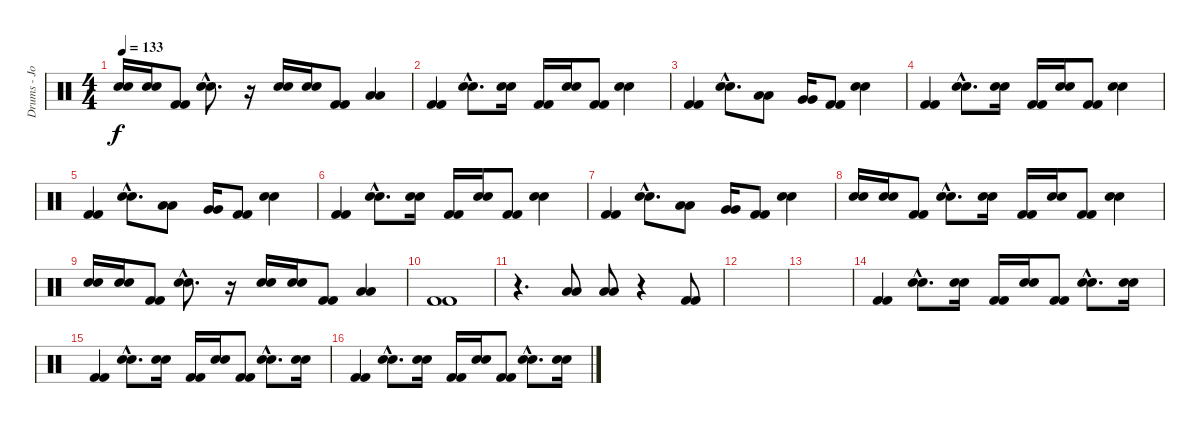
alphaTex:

\track ("Drums - Joe Daniels" "Drums - Jo") {instrument percussion}
\staff {score}
\articulation defaults
\ts (4 4)
\tempo 133
\clef neutral
\ks c
("Snare (hit) 2" "Snare (hit) 2").16{dy f} ("Snare (hit) 2" "Snare (hit) 2").16 ("Kick (hit) 2" "Kick (hit) 2").8 ("Snare (hit) 2"{hac} "Snare (hit) 2"{hac}).8{d} r.16 ("Snare (hit) 2" "Snare (hit) 2").16 ("Snare (hit) 2" "Snare (hit) 2").16 ("Kick (hit) 2" "Kick (hit) 2").8 ("Low Tom (hit)" "Low Tom (hit)").4 |
("Kick (hit) 2" "Kick (hit) 2").4 ("Snare (hit) 2"{hac} "Snare (hit) 2"{hac}).8{d} ("Snare (hit) 2" "Snare (hit) 2").16 ("Kick (hit) 2" "Kick (hit) 2").16 ("Snare (hit) 2" "Snare (hit) 2").16 ("Kick (hit) 2" "Kick (hit) 2").8 ("Snare (hit) 2" "Snare (hit) 2").4 |
("Kick (hit) 2" "Kick (hit) 2").4 ("Snare (hit) 2"{hac} "Snare (hit) 2"{hac}).8{d} ("Low Tom (hit)" "Low Tom (hit)").8 ("Very Low Tom (hit)" "Very Low Tom (hit)").16 ("Kick (hit) 2" "Kick (hit) 2").8 ("Snare (hit) 2" "Snare (hit) 2").4 |
("Kick (hit) 2" "Kick (hit) 2").4 ("Snare (hit) 2"{hac} "Snare (hit) 2"{hac}).8{d} ("Snare (hit) 2" "Snare (hit) 2").16 ("Kick (hit) 2" "Kick (hit) 2").16 ("Snare (hit) 2" "Snare (hit) 2").16 ("Kick (hit) 2" "Kick (hit) 2").8 ("Snare (hit) 2" "Snare (hit) 2").4 |
("Kick (hit) 2" "Kick (hit) 2").4 ("Snare (hit) 2"{hac} "Snare (hit) 2"{hac}).8{d} ("Low Tom (hit)" "Low Tom (hit)").8 ("Very Low Tom (hit)" "Very Low Tom (hit)").16 ("Kick (hit) 2" "Kick (hit) 2").8 ("Snare (hit) 2" "Snare (hit) 2").4 |
("Kick (hit) 2" "Kick (hit) 2").4 ("Snare (hit) 2"{hac} "Snare (hit) 2"{hac}).8{d} ("Snare (hit) 2" "Snare (hit) 2").16 ("Kick (hit) 2" "Kick (hit) 2").16 ("Snare (hit) 2" "Snare (hit) 2").16 ("Kick (hit) 2" "Kick (hit) 2").8 ("Snare (hit) 2" "Snare (hit) 2").4 |
("Kick (hit) 2" "Kick (hit) 2").4 ("Snare (hit) 2"{hac} "Snare (hit) 2"{hac}).8{d} ("Low Tom (hit)" "Low Tom (hit)").8 ("Very Low Tom (hit)" "Very Low Tom (hit)").16 ("Kick (hit) 2" "Kick (hit) 2").8 ("Snare (hit) 2" "Snare (hit) 2").4 |
("Snare (hit) 2" "Snare (hit) 2").16 ("Snare (hit) 2" "Snare (hit) 2").16 ("Kick (hit) 2" "Kick (hit) 2").8 ("Snare (hit) 2"{hac} "Snare (hit) 2"{hac}).8{d} ("Snare (hit) 2" "Snare (hit) 2").16 ("Kick (hit) 2" "Kick (hit) 2").16 ("Snare (hit) 2" "Snare (hit) 2").16 ("Kick (hit) 2" "Kick (hit) 2").8 ("Snare (hit) 2" "Snare (hit) 2").4 |
("Snare (hit) 2" "Snare (hit) 2").16 ("Snare (hit) 2" "Snare (hit) 2").16 ("Kick (hit) 2" "Kick (hit) 2").8 ("Snare (hit) 2"{hac} "Snare (hit) 2"{hac}).8{d} r.16 ("Snare (hit) 2" "Snare (hit) 2").16 ("Snare (hit) 2" "Snare (hit) 2").16 ("Kick (hit) 2" "Kick (hit) 2").8 ("Low Tom (hit)" "Low Tom (hit)").4 |
("Kick (hit) 2" "Kick (hit) 2").1 |
r.4{d} ("Low Floor Tom (hit)" "Low Floor Tom (hit)").8 ("Low Floor Tom (hit)" "Low Floor Tom (hit)").8 r.4 ("Kick (hit) 2" "Kick (hit) 2").8 |
|
|
("Kick (hit) 2" "Kick (hit) 2").4 ("Snare (hit) 2"{hac} "Snare (hit) 2"{hac}).8{d} ("Snare (hit) 2" "Snare (hit) 2").16 ("Kick (hit) 2" "Kick (hit) 2").16 ("Snare (hit) 2" "Snare (hit) 2").16 ("Kick (hit) 2" "Kick (hit) 2").8 ("Snare (hit) 2"{hac} "Snare (hit) 2"{hac}).8{d} ("Snare (hit) 2" "Snare (hit) 2").16 |
("Kick (hit) 2" "Kick (hit) 2").4 ("Snare (hit) 2"{hac} "Snare (hit) 2"{hac}).8{d} ("Snare (hit) 2" "Snare (hit) 2").16 ("Kick (hit) 2" "Kick (hit) 2").16 ("Snare (hit) 2" "Snare (hit) 2").16 ("Kick (hit) 2" "Kick (hit) 2").8 ("Snare (hit) 2"{hac} "Snare (hit) 2"{hac}).8{d} ("Snare (hit) 2" "Snare (hit) 2").16 |
("Kick (hit) 2" "Kick (hit) 2").4 ("Snare (hit) 2"{hac} "Snare (hit) 2"{hac}).8{d} ("Snare (hit) 2" "Snare (hit) 2").16 ("Kick (hit) 2" "Kick (hit) 2").16 ("Snare (hit) 2" "Snare (hit) 2").16 ("Kick (hit) 2" "Kick (hit) 2").8 ("Snare (hit) 2"{hac} "Snare (hit) 2"{hac}).8{d} ("Snare (hit) 2" "Snare (hit) 2").16
